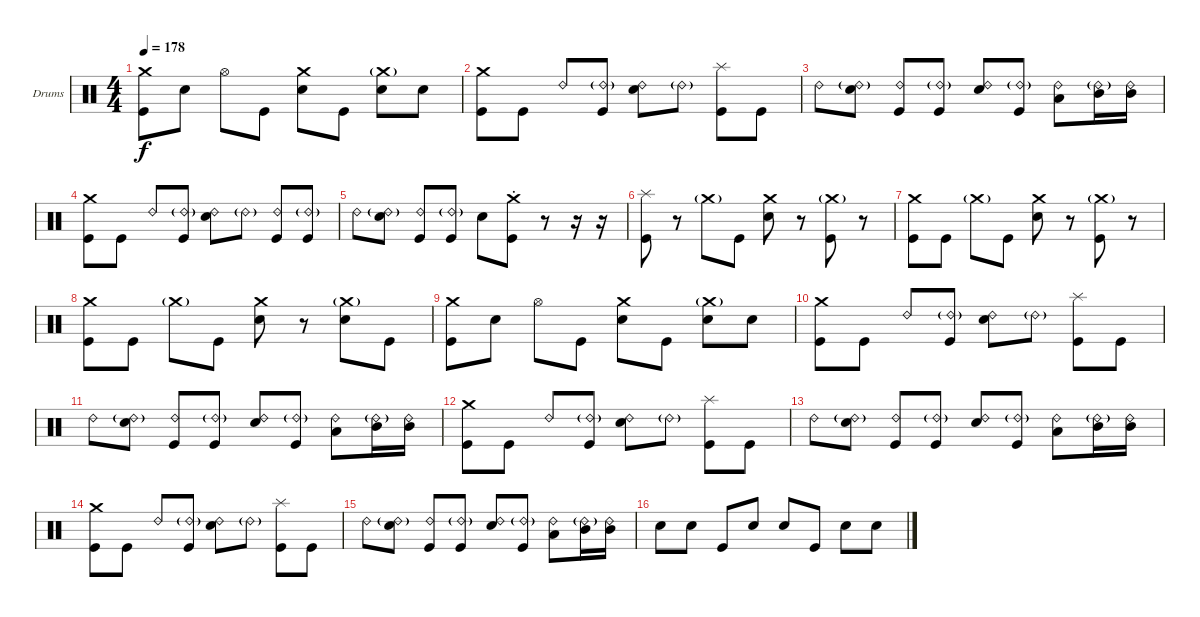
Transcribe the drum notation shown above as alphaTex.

\bracketExtendMode groupsimilarinstruments
\firstSystemTrackNameOrientation horizontal
\otherSystemsTrackNameOrientation horizontal
\track ("Drums" "Drums") {instrument percussion}
\staff {score}
\articulation defaults
\ts (4 4)
\tempo 178
\clef neutral
\ks c
("Kick (hit)" "Crash medium (hit)").8{dy f} "Snare (hit) 2".8 "Hi-Hat (open)".8 "Kick (hit)".8 ("Snare (hit) 2" "Crash medium (hit)").8 "Kick (hit)".8 ("Snare (hit) 2" "Crash medium (hit)"{g}).8 "Snare (hit) 2".8 |
("Kick (hit)" "Crash medium (hit)").8 "Kick (hit)".8 "Ride (bell) 2".8 ("Kick (hit)" "Ride (bell) 2"{g}).8 ("Snare (hit) 2" "Ride (bell) 2").8 "Ride (bell) 2"{g}.8 ("Kick (hit)" "Splash (hit)").8 "Kick (hit)".8 |
"Ride (bell) 2".8 ("Snare (hit) 2" "Ride (bell) 2"{g}).8 ("Kick (hit)" "Ride (bell) 2").8 ("Kick (hit)" "Ride (bell) 2"{g}).8 ("Snare (hit) 2" "Ride (bell) 2").8 ("Kick (hit)" "Ride (bell) 2"{g}).8 ("Low Tom (hit)" "Ride (bell) 2").8 ("Mid Tom (hit)" "Ride (bell) 2"{g}).16 ("Mid Tom (hit)" "Ride (bell) 2").16 |
("Kick (hit)" "Crash medium (hit)").8 "Kick (hit)".8 "Ride (bell) 2".8 ("Kick (hit)" "Ride (bell) 2"{g}).8 ("Snare (hit) 2" "Ride (bell) 2").8 "Ride (bell) 2"{g}.8 ("Kick (hit)" "Ride (bell) 2").8 ("Kick (hit)" "Ride (bell) 2"{g}).8 |
"Ride (bell) 2".8 ("Snare (hit) 2" "Ride (bell) 2"{g}).8 ("Kick (hit)" "Ride (bell) 2").8 ("Kick (hit)" "Ride (bell) 2"{g}).8 "Snare (hit) 2".8 ("Crash medium (hit)"{st} "Kick (hit)").8 r.8 r.16 r.16 |
("Splash (hit)" "Kick (hit)").8 r.8 "Crash medium (hit)"{g}.8 "Kick (hit)".8 ("Snare (hit) 2" "Crash medium (hit)").8 r.8 ("Kick (hit)" "Crash medium (hit)"{g}).8 r.8 |
("Kick (hit)" "Crash medium (hit)").8 "Kick (hit)".8 "Crash medium (hit)"{g}.8 "Kick (hit)".8 ("Snare (hit) 2" "Crash medium (hit)").8 r.8 ("Kick (hit)" "Crash medium (hit)"{g}).8 r.8 |
("Kick (hit)" "Crash medium (hit)").8 "Kick (hit)".8 "Crash medium (hit)"{g}.8 "Kick (hit)".8 ("Snare (hit) 2" "Crash medium (hit)").8 r.8 ("Snare (hit) 2" "Crash medium (hit)"{g}).8 "Kick (hit)".8 |
("Kick (hit)" "Crash medium (hit)").8 "Snare (hit) 2".8 "Hi-Hat (open)".8 "Kick (hit)".8 ("Snare (hit) 2" "Crash medium (hit)").8 "Kick (hit)".8 ("Snare (hit) 2" "Crash medium (hit)"{g}).8 "Snare (hit) 2".8 |
("Kick (hit)" "Crash medium (hit)").8 "Kick (hit)".8 "Ride (bell) 2".8 ("Kick (hit)" "Ride (bell) 2"{g}).8 ("Snare (hit) 2" "Ride (bell) 2").8 "Ride (bell) 2"{g}.8 ("Kick (hit)" "Splash (hit)").8 "Kick (hit)".8 |
"Ride (bell) 2".8 ("Snare (hit) 2" "Ride (bell) 2"{g}).8 ("Kick (hit)" "Ride (bell) 2").8 ("Kick (hit)" "Ride (bell) 2"{g}).8 ("Snare (hit) 2" "Ride (bell) 2").8 ("Kick (hit)" "Ride (bell) 2"{g}).8 ("Low Tom (hit)" "Ride (bell) 2").8 ("Mid Tom (hit)" "Ride (bell) 2"{g}).16 ("Mid Tom (hit)" "Ride (bell) 2").16 |
("Kick (hit)" "Crash medium (hit)").8 "Kick (hit)".8 "Ride (bell) 2".8 ("Kick (hit)" "Ride (bell) 2"{g}).8 ("Snare (hit) 2" "Ride (bell) 2").8 "Ride (bell) 2"{g}.8 ("Kick (hit)" "Splash (hit)").8 "Kick (hit)".8 |
"Ride (bell) 2".8 ("Snare (hit) 2" "Ride (bell) 2"{g}).8 ("Kick (hit)" "Ride (bell) 2").8 ("Kick (hit)" "Ride (bell) 2"{g}).8 ("Snare (hit) 2" "Ride (bell) 2").8 ("Kick (hit)" "Ride (bell) 2"{g}).8 ("Low Tom (hit)" "Ride (bell) 2").8 ("Mid Tom (hit)" "Ride (bell) 2"{g}).16 ("Mid Tom (hit)" "Ride (bell) 2").16 |
("Kick (hit)" "Crash medium (hit)").8 "Kick (hit)".8 "Ride (bell) 2".8 ("Kick (hit)" "Ride (bell) 2"{g}).8 ("Snare (hit) 2" "Ride (bell) 2").8 "Ride (bell) 2"{g}.8 ("Kick (hit)" "Splash (hit)").8 "Kick (hit)".8 |
"Ride (bell) 2".8 ("Snare (hit) 2" "Ride (bell) 2"{g}).8 ("Kick (hit)" "Ride (bell) 2").8 ("Kick (hit)" "Ride (bell) 2"{g}).8 ("Snare (hit) 2" "Ride (bell) 2").8 ("Kick (hit)" "Ride (bell) 2"{g}).8 ("Low Tom (hit)" "Ride (bell) 2").8 ("Mid Tom (hit)" "Ride (bell) 2"{g}).16 ("Mid Tom (hit)" "Ride (bell) 2").16 |
"Snare (hit) 2".8 "Snare (hit) 2".8 "Kick (hit)".8 "Snare (hit) 2".8 "Snare (hit) 2".8 "Kick (hit)".8 "Snare (hit) 2".8 "Snare (hit) 2".8
